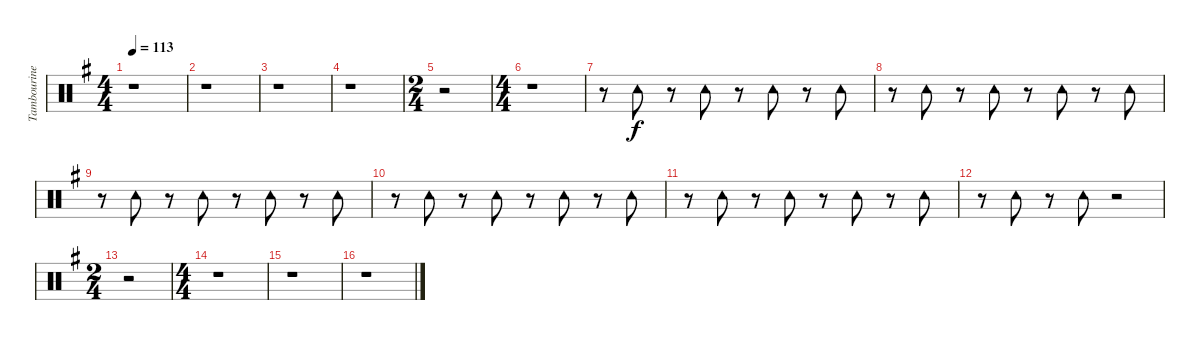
\track ("Tambourine" "Tambourine") {instrument percussion}
\staff {score}
\articulation defaults
\ts (4 4)
\tempo 113
\clef neutral
\ks eminor
r.1{dy f} |
r.1 |
r.1 |
r.1 |
\ts (2 4)
r.2 |
\ts (4 4)
r.1 |
r.8 "Tambourine (hit)".8 r.8 "Tambourine (hit)".8 r.8 "Tambourine (hit)".8 r.8 "Tambourine (hit)".8 |
r.8 "Tambourine (hit)".8 r.8 "Tambourine (hit)".8 r.8 "Tambourine (hit)".8 r.8 "Tambourine (hit)".8 |
r.8 "Tambourine (hit)".8 r.8 "Tambourine (hit)".8 r.8 "Tambourine (hit)".8 r.8 "Tambourine (hit)".8 |
r.8 "Tambourine (hit)".8 r.8 "Tambourine (hit)".8 r.8 "Tambourine (hit)".8 r.8 "Tambourine (hit)".8 |
r.8 "Tambourine (hit)".8 r.8 "Tambourine (hit)".8 r.8 "Tambourine (hit)".8 r.8 "Tambourine (hit)".8 |
r.8 "Tambourine (hit)".8 r.8 "Tambourine (hit)".8 r.2 |
\ts (2 4)
r.2 |
\ts (4 4)
r.1 |
r.1 |
r.1
